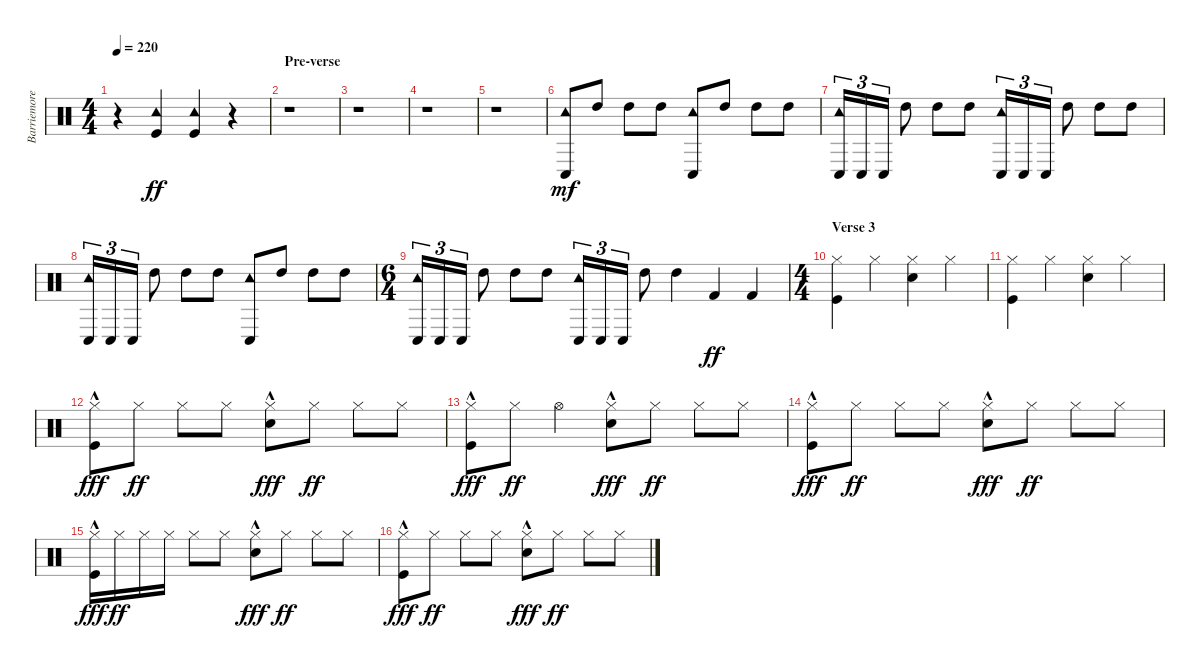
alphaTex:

\track ("Barriemore Barlow (Drums)" "Barriemore") {instrument percussion}
\staff {score}
\articulation defaults
\ts (4 4)
\tempo 220
\clef neutral
\ks c
r.4{dy ff} ("Kick (hit)" "Tambourine (hit)").4 ("Kick (hit)" "Tambourine (hit)").4 r.4 |
\section ("" "Pre-verse")
r.1 |
r.1 |
r.1 |
r.1 |
("Tambourine (hit)" "Conga low (hit)").8{dy mf} "High Tom (hit)".8 "High Tom (hit)".8 "High Tom (hit)".8 ("Tambourine (hit)" "Conga low (hit)").8 "High Tom (hit)".8 "High Tom (hit)".8 "High Tom (hit)".8 |
("Tambourine (hit)" "Conga low (hit)").16{tu (3 2)} "Conga low (hit)".16{tu (3 2)} "Conga low (hit)".16{tu (3 2)} "High Tom (hit)".8 "High Tom (hit)".8 "High Tom (hit)".8 ("Tambourine (hit)" "Conga low (hit)").16{tu (3 2)} "Conga low (hit)".16{tu (3 2)} "Conga low (hit)".16{tu (3 2)} "High Tom (hit)".8 "High Tom (hit)".8 "High Tom (hit)".8 |
("Tambourine (hit)" "Conga low (hit)").16{tu (3 2)} "Conga low (hit)".16{tu (3 2)} "Conga low (hit)".16{tu (3 2)} "High Tom (hit)".8 "High Tom (hit)".8 "High Tom (hit)".8 ("Tambourine (hit)" "Conga low (hit)").8 "High Tom (hit)".8 "High Tom (hit)".8 "High Tom (hit)".8 |
\ts (6 4)
("Tambourine (hit)" "Conga low (hit)").16{tu (3 2)} "Conga low (hit)".16{tu (3 2)} "Conga low (hit)".16{tu (3 2)} "High Tom (hit)".8 "High Tom (hit)".8 "High Tom (hit)".8 ("Tambourine (hit)" "Conga low (hit)").16{tu (3 2)} "Conga low (hit)".16{tu (3 2)} "Conga low (hit)".16{tu (3 2)} "High Tom (hit)".8 "High Tom (hit)".4 "Kick (hit) 2".4{dy ff} "Kick (hit) 2".4 |
\ts (4 4)
\section ("" "Verse 3")
("Kick (hit)" "Hi-Hat (closed)").4 "Hi-Hat (closed)".4 ("Snare (hit) 2" "Hi-Hat (closed)").4 "Hi-Hat (closed)".4 |
("Kick (hit)" "Hi-Hat (closed)").4 "Hi-Hat (closed)".4 ("Snare (hit) 2" "Hi-Hat (closed)").4 "Hi-Hat (closed)".4 |
("Kick (hit)"{hac} "Hi-Hat (closed)").8{dy fff} "Hi-Hat (closed)".8{dy ff} "Hi-Hat (closed)".8 "Hi-Hat (closed)".8 ("Snare (hit) 2"{hac} "Hi-Hat (closed)").8{dy fff} "Hi-Hat (closed)".8{dy ff} "Hi-Hat (closed)".8 "Hi-Hat (closed)".8 |
("Kick (hit)"{hac} "Hi-Hat (closed)").8{dy fff} "Hi-Hat (closed)".8{dy ff} "Hi-Hat (open)".4 ("Snare (hit) 2"{hac} "Hi-Hat (closed)").8{dy fff} "Hi-Hat (closed)".8{dy ff} "Hi-Hat (closed)".8 "Hi-Hat (closed)".8 |
("Kick (hit)"{hac} "Hi-Hat (closed)").8{dy fff} "Hi-Hat (closed)".8{dy ff} "Hi-Hat (closed)".8 "Hi-Hat (closed)".8 ("Snare (hit) 2"{hac} "Hi-Hat (closed)").8{dy fff} "Hi-Hat (closed)".8{dy ff} "Hi-Hat (closed)".8 "Hi-Hat (closed)".8 |
("Kick (hit)"{hac} "Hi-Hat (closed)").16{dy fff} "Hi-Hat (closed)".16{dy ff} "Hi-Hat (closed)".16 "Hi-Hat (closed)".16 "Hi-Hat (closed)".8 "Hi-Hat (closed)".8 ("Snare (hit) 2"{hac} "Hi-Hat (closed)").8{dy fff} "Hi-Hat (closed)".8{dy ff} "Hi-Hat (closed)".8 "Hi-Hat (closed)".8 |
("Kick (hit)"{hac} "Hi-Hat (closed)").8{dy fff} "Hi-Hat (closed)".8{dy ff} "Hi-Hat (closed)".8 "Hi-Hat (closed)".8 ("Snare (hit) 2"{hac} "Hi-Hat (closed)").8{dy fff} "Hi-Hat (closed)".8{dy ff} "Hi-Hat (closed)".8 "Hi-Hat (closed)".8
